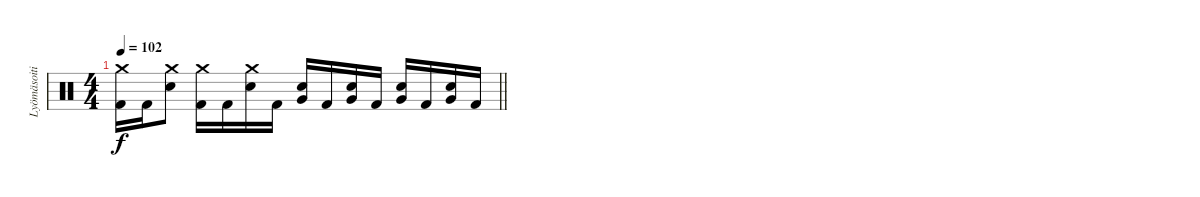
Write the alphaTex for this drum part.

\track ("Lyömäsoitin" "Lyömäsoiti") {instrument percussion}
\staff {score}
\articulation defaults
\ts (4 4)
\tempo 102
\clef neutral
\barLineRight lightlight
\ks c
("Crash medium (hit)" "Kick (hit) 2").16{dy f} "Kick (hit) 2".16 ("Crash medium (hit)" "Electric Snare (hit)").8 ("Crash medium (hit)" "Kick (hit) 2").16 "Kick (hit) 2".16 ("Crash medium (hit)" "Electric Snare (hit)").16 "Kick (hit) 2".16 ("Very Low Tom (hit)" "Electric Snare (hit)").16 "Kick (hit) 2".16 ("Very Low Tom (hit)" "Electric Snare (hit)").16 "Kick (hit) 2".16 ("Very Low Tom (hit)" "Electric Snare (hit)").16 "Kick (hit) 2".16 ("Very Low Tom (hit)" "Electric Snare (hit)").16 "Kick (hit) 2".16
